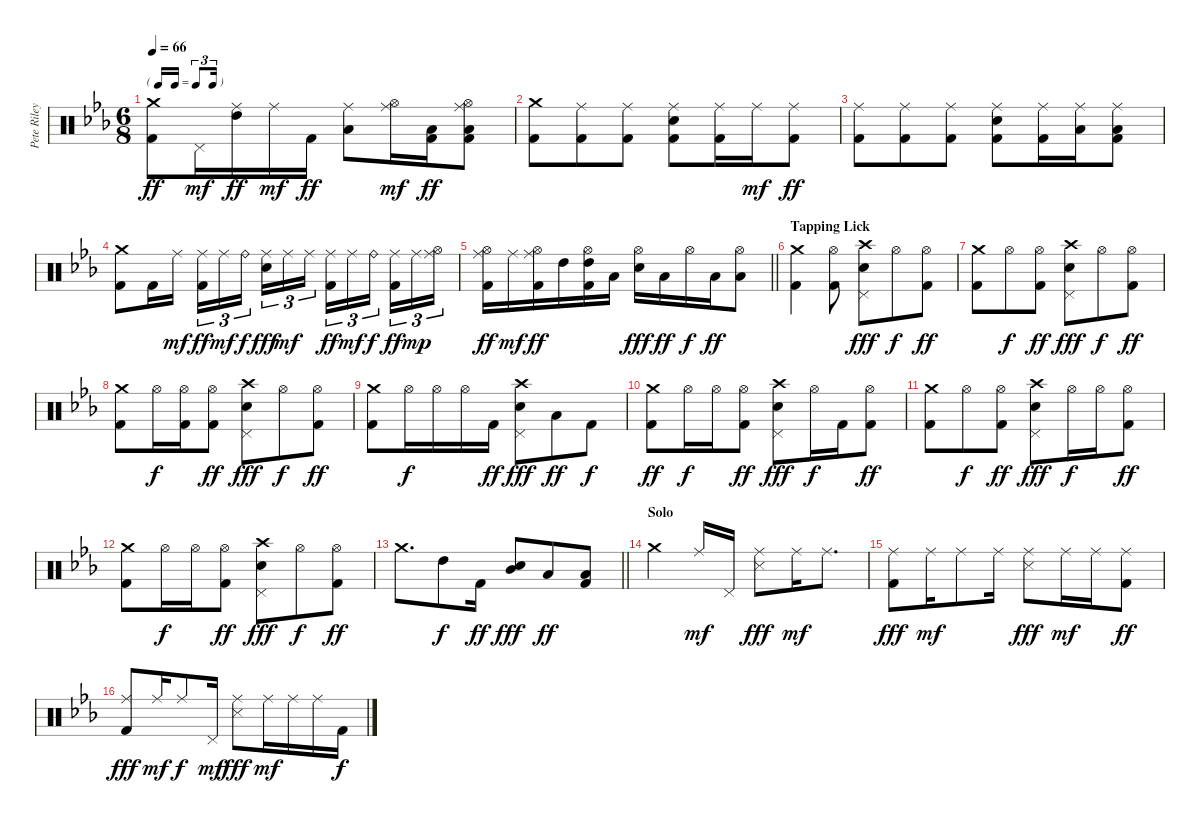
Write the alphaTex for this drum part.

\track ("Pete Riley, Drums" "Pete Riley") {instrument percussion}
\staff {score}
\articulation defaults
\ts (6 8)
\tf triplet16th
\tempo 66
\clef neutral
\ks cminor
("Crash medium (hit)" "Kick (hit) 2").8{dy ff} "Pedal Hi-Hat (hit)".16{dy mf} ("Ride (middle)" "High Tom (hit)").16{dy ff} "Ride (middle)".16{dy mf} "Kick (hit) 2".16{dy ff} ("Ride (middle)" "Low Tom (hit)").8 ("Ride (middle)" "Hi-Hat (open)").16{dy mf} ("Low Floor Tom (hit)" "Kick (hit) 2").16{dy ff} ("Ride (middle)" "Hi-Hat (open)" "Low Floor Tom (hit)" "Kick (hit) 2").8 |
("Crash medium (hit)" "Kick (hit) 2").8 ("Ride (middle)" "Kick (hit) 2").8 ("Ride (middle)" "Kick (hit) 2").8 ("Ride (middle)" "Snare (hit) 2" "Kick (hit) 2").8 ("Ride (middle)" "Kick (hit) 2").16 "Ride (middle)".16{dy mf} ("Ride (middle)" "Kick (hit) 2").8{dy ff} |
("Ride (middle)" "Kick (hit) 2").8 ("Ride (middle)" "Kick (hit) 2").8 ("Ride (middle)" "Kick (hit) 2").8 ("Ride (middle)" "Snare (hit) 2" "Kick (hit) 2").8 ("Ride (middle)" "Kick (hit) 2").16 ("Ride (middle)" "Low Tom (hit)").16 ("Ride (middle)" "Low Floor Tom (hit)" "Kick (hit) 2").8 |
("Crash medium (hit)" "Kick (hit) 2").8 "Kick (hit) 2".16 "Ride (middle)".16{dy mf beam splitsecondary} ("Ride (middle)" "Kick (hit) 2").16{tu (3 2) dy ff} "Ride (middle)".16{tu (3 2) dy mf} "Ride (bell)".16{tu (3 2) dy f} ("Ride (middle)" "Snare (hit) 2").16{tu (3 2) dy fff} "Ride (middle)".16{tu (3 2) dy mf} "Ride (middle)".16{tu (3 2) beam splitsecondary} ("Ride (middle)" "Kick (hit) 2").16{tu (3 2) dy ff} "Ride (middle)".16{tu (3 2) dy mf} "Ride (bell)".16{tu (3 2) dy f beam splitsecondary} ("Ride (middle)" "Kick (hit) 2").16{tu (3 2) dy ff} "Ride (middle)".16{tu (3 2) dy mp} ("Ride (middle)" "Hi-Hat (open)").16{tu (3 2)} |
\barLineRight lightlight
("Ride (middle)" "Hi-Hat (open)" "Kick (hit) 2").16{dy ff} "Ride (middle)".16{dy mf} ("Ride (middle)" "Hi-Hat (open)" "Kick (hit) 2").16{dy ff} "High Tom (hit)".16 ("High Tom (hit)" "Hi-Hat (open)" "Kick (hit) 2").16 "Low Tom (hit)".16 ("Hi-Hat (open)" "Snare (hit) 2").16{dy fff} "Low Tom (hit)".16{dy ff} "Hi-Hat (open)".16{dy f} "Low Floor Tom (hit)".16{dy ff} ("Hi-Hat (open)" "Low Floor Tom (hit)").8 |
\section ("" "Tapping Lick")
("Crash medium (hit)" "Kick (hit) 2").4 ("Hi-Hat (open)" "Kick (hit) 2").8 ("Crash high (hit)" "Pedal Hi-Hat (hit)" "Snare (hit) 2").8{dy fff} "Hi-Hat (open)".8{dy f} ("Hi-Hat (open)" "Kick (hit) 2").8{dy ff} |
("Crash medium (hit)" "Kick (hit) 2").8 "Hi-Hat (open)".8{dy f} ("Hi-Hat (open)" "Kick (hit) 2").8{dy ff} ("Crash high (hit)" "Pedal Hi-Hat (hit)" "Snare (hit) 2").8{dy fff} "Hi-Hat (open)".8{dy f} ("Hi-Hat (open)" "Kick (hit) 2").8{dy ff} |
("Crash medium (hit)" "Kick (hit) 2").8 "Hi-Hat (open)".16{dy f} ("Hi-Hat (open)" "Kick (hit) 2").16 ("Hi-Hat (open)" "Kick (hit) 2").8{dy ff} ("Crash high (hit)" "Pedal Hi-Hat (hit)" "Snare (hit) 2").8{dy fff} "Hi-Hat (open)".8{dy f} ("Hi-Hat (open)" "Kick (hit) 2").8{dy ff} |
("Crash medium (hit)" "Kick (hit) 2").8 "Hi-Hat (open)".16{dy f} "Hi-Hat (open)".16 "Hi-Hat (open)".16 "Kick (hit) 2".16{dy ff} ("Crash high (hit)" "Pedal Hi-Hat (hit)" "Snare (hit) 2").8{dy fff} "Low Floor Tom (hit)".8{dy ff} "Kick (hit) 2".8{dy f} |
("Crash medium (hit)" "Kick (hit) 2").8{dy ff} "Hi-Hat (open)".16{dy f} "Hi-Hat (open)".16 ("Hi-Hat (open)" "Kick (hit) 2").8{dy ff} ("Crash high (hit)" "Pedal Hi-Hat (hit)" "Snare (hit) 2").8{dy fff} "Hi-Hat (open)".16{dy f} "Kick (hit) 2".16 ("Hi-Hat (open)" "Kick (hit) 2").8{dy ff} |
("Crash medium (hit)" "Kick (hit) 2").8 "Hi-Hat (open)".8{dy f} ("Hi-Hat (open)" "Kick (hit) 2").8{dy ff} ("Crash high (hit)" "Pedal Hi-Hat (hit)" "Snare (hit) 2").8{dy fff} "Hi-Hat (open)".16{dy f} "Hi-Hat (open)".16 ("Hi-Hat (open)" "Kick (hit) 2").8{dy ff} |
("Crash medium (hit)" "Kick (hit) 2").8 "Hi-Hat (open)".16{dy f} "Hi-Hat (open)".16 ("Hi-Hat (open)" "Kick (hit) 2").8{dy ff} ("Crash high (hit)" "Pedal Hi-Hat (hit)" "Snare (hit) 2").8{dy fff} "Hi-Hat (open)".8{dy f} ("Hi-Hat (open)" "Kick (hit) 2").8{dy ff} |
\barLineRight lightlight "Crash medium (hit)".8{d} "High Tom (hit)".8{dy f} "Kick (hit) 2".16{dy ff}
("Mid Tom (hit)" "Snare (hit) 2").8{dy fff} "Low Tom (hit)".8{dy ff} ("Low Floor Tom (hit)" "Kick (hit) 2").8 |
\section ("" "Solo")
"Crash medium (hit)".4 "Ride (middle)".16{dy mf} "Pedal Hi-Hat (hit)".16 ("Ride (middle)" "Snare (side stick) 3").8{dy fff} "Ride (middle)".16{dy mf} "Ride (middle)".8{d} |
("Ride (middle)" "Kick (hit) 2").8{dy fff} "Ride (middle)".16{dy mf} "Ride (middle)".8 "Ride (middle)".16 ("Ride (middle)" "Snare (side stick) 3").8{dy fff} "Ride (middle)".16{dy mf} "Ride (middle)".16 ("Ride (middle)" "Kick (hit) 2").8{dy ff} |
("Ride (middle)" "Kick (hit) 2").8{dy fff} "Ride (middle)".16{dy mf} "Ride (middle)".8{dy f} "Pedal Hi-Hat (hit)".16{dy mf} ("Ride (middle)" "Snare (side stick) 3").8{dy fff} "Ride (middle)".16{dy mf} "Ride (middle)".16 "Ride (middle)".16 "Kick (hit) 2".16{dy f}
